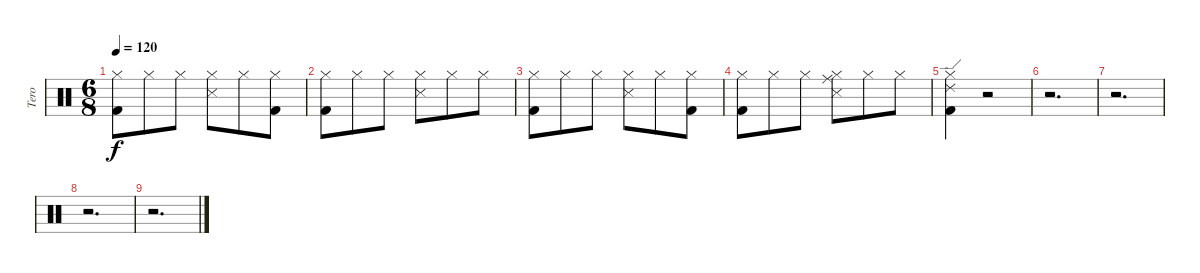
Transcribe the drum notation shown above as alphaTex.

\track ("Tero" "Tero") {instrument percussion}
\staff {score}
\articulation defaults
\ts (6 8)
\tempo 120
\clef neutral
\ks c
("Hi-Hat (closed)" "Kick (hit) 2").8{dy f} "Hi-Hat (closed)".8 "Hi-Hat (closed)".8 ("Hi-Hat (closed)" "Snare (side stick) 3").8 "Hi-Hat (closed)".8 ("Hi-Hat (closed)" "Kick (hit) 2").8 |
("Kick (hit) 2" "Hi-Hat (closed)").8 "Hi-Hat (closed)".8 "Hi-Hat (closed)".8 ("Hi-Hat (closed)" "Snare (side stick) 3").8 "Hi-Hat (closed)".8 "Hi-Hat (closed)".8 |
("Hi-Hat (closed)" "Kick (hit) 2").8 "Hi-Hat (closed)".8 "Hi-Hat (closed)".8 ("Hi-Hat (closed)" "Snare (side stick) 3").8 "Hi-Hat (closed)".8 ("Hi-Hat (closed)" "Kick (hit) 2").8 |
("Hi-Hat (closed)" "Kick (hit) 2").8 "Hi-Hat (closed)".8 "Hi-Hat (closed)".8 ("Hi-Hat (closed)" "Ride (middle)" "Snare (side stick) 3").8 "Hi-Hat (closed)".8 "Hi-Hat (closed)".8 |
("Kick (hit) 2" "Ride (edge) 2" "Hi-Hat (closed)").4 r.2 |
r.2{d} |
r.2{d} |
r.2{d} |
r.2{d}
